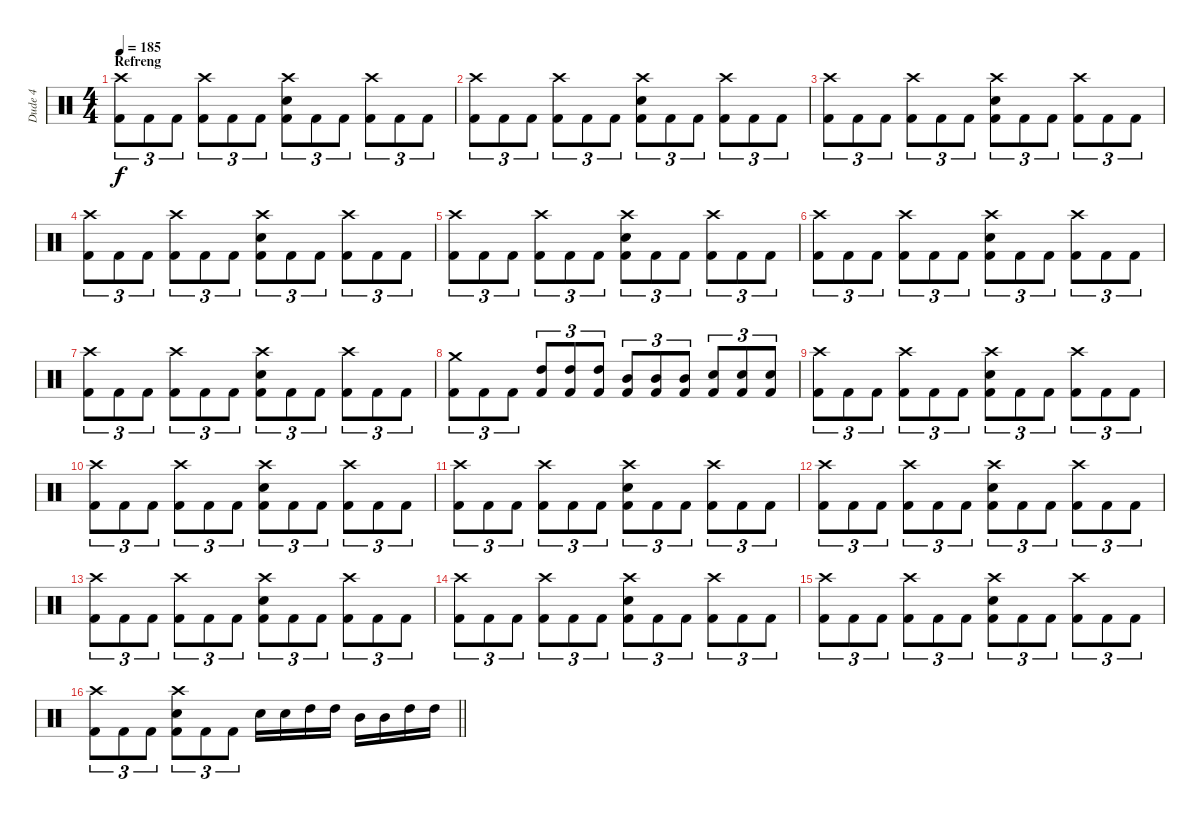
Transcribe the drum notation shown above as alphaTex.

\track ("Dude 4" "Dude 4") {instrument percussion}
\staff {score}
\articulation defaults
\ts (4 4)
\section ("" "Refreng")
\tempo 185
\clef neutral
\ks c
("Crash high (hit)" "Kick (hit) 2").8{tu (3 2) dy f} "Kick (hit) 2".8{tu (3 2)} "Kick (hit) 2".8{tu (3 2)} ("Crash high (hit)" "Kick (hit) 2").8{tu (3 2)} "Kick (hit) 2".8{tu (3 2)} "Kick (hit) 2".8{tu (3 2)} ("Crash high (hit)" "Electric Snare (hit)" "Kick (hit) 2").8{tu (3 2)} "Kick (hit) 2".8{tu (3 2)} "Kick (hit) 2".8{tu (3 2)} ("Crash high (hit)" "Kick (hit) 2").8{tu (3 2)} "Kick (hit) 2".8{tu (3 2)} "Kick (hit) 2".8{tu (3 2)} |
("Crash high (hit)" "Kick (hit) 2").8{tu (3 2)} "Kick (hit) 2".8{tu (3 2)} "Kick (hit) 2".8{tu (3 2)} ("Crash high (hit)" "Kick (hit) 2").8{tu (3 2)} "Kick (hit) 2".8{tu (3 2)} "Kick (hit) 2".8{tu (3 2)} ("Crash high (hit)" "Electric Snare (hit)" "Kick (hit) 2").8{tu (3 2)} "Kick (hit) 2".8{tu (3 2)} "Kick (hit) 2".8{tu (3 2)} ("Crash high (hit)" "Kick (hit) 2").8{tu (3 2)} "Kick (hit) 2".8{tu (3 2)} "Kick (hit) 2".8{tu (3 2)} |
("Crash high (hit)" "Kick (hit) 2").8{tu (3 2)} "Kick (hit) 2".8{tu (3 2)} "Kick (hit) 2".8{tu (3 2)} ("Crash high (hit)" "Kick (hit) 2").8{tu (3 2)} "Kick (hit) 2".8{tu (3 2)} "Kick (hit) 2".8{tu (3 2)} ("Crash high (hit)" "Electric Snare (hit)" "Kick (hit) 2").8{tu (3 2)} "Kick (hit) 2".8{tu (3 2)} "Kick (hit) 2".8{tu (3 2)} ("Crash high (hit)" "Kick (hit) 2").8{tu (3 2)} "Kick (hit) 2".8{tu (3 2)} "Kick (hit) 2".8{tu (3 2)} |
("Crash high (hit)" "Kick (hit) 2").8{tu (3 2)} "Kick (hit) 2".8{tu (3 2)} "Kick (hit) 2".8{tu (3 2)} ("Crash high (hit)" "Kick (hit) 2").8{tu (3 2)} "Kick (hit) 2".8{tu (3 2)} "Kick (hit) 2".8{tu (3 2)} ("Crash high (hit)" "Electric Snare (hit)" "Kick (hit) 2").8{tu (3 2)} "Kick (hit) 2".8{tu (3 2)} "Kick (hit) 2".8{tu (3 2)} ("Crash high (hit)" "Kick (hit) 2").8{tu (3 2)} "Kick (hit) 2".8{tu (3 2)} "Kick (hit) 2".8{tu (3 2)} |
("Crash high (hit)" "Kick (hit) 2").8{tu (3 2)} "Kick (hit) 2".8{tu (3 2)} "Kick (hit) 2".8{tu (3 2)} ("Crash high (hit)" "Kick (hit) 2").8{tu (3 2)} "Kick (hit) 2".8{tu (3 2)} "Kick (hit) 2".8{tu (3 2)} ("Crash high (hit)" "Electric Snare (hit)" "Kick (hit) 2").8{tu (3 2)} "Kick (hit) 2".8{tu (3 2)} "Kick (hit) 2".8{tu (3 2)} ("Crash high (hit)" "Kick (hit) 2").8{tu (3 2)} "Kick (hit) 2".8{tu (3 2)} "Kick (hit) 2".8{tu (3 2)} |
("Crash high (hit)" "Kick (hit) 2").8{tu (3 2)} "Kick (hit) 2".8{tu (3 2)} "Kick (hit) 2".8{tu (3 2)} ("Crash high (hit)" "Kick (hit) 2").8{tu (3 2)} "Kick (hit) 2".8{tu (3 2)} "Kick (hit) 2".8{tu (3 2)} ("Crash high (hit)" "Electric Snare (hit)" "Kick (hit) 2").8{tu (3 2)} "Kick (hit) 2".8{tu (3 2)} "Kick (hit) 2".8{tu (3 2)} ("Crash high (hit)" "Kick (hit) 2").8{tu (3 2)} "Kick (hit) 2".8{tu (3 2)} "Kick (hit) 2".8{tu (3 2)} |
("Crash high (hit)" "Kick (hit) 2").8{tu (3 2)} "Kick (hit) 2".8{tu (3 2)} "Kick (hit) 2".8{tu (3 2)} ("Crash high (hit)" "Kick (hit) 2").8{tu (3 2)} "Kick (hit) 2".8{tu (3 2)} "Kick (hit) 2".8{tu (3 2)} ("Crash high (hit)" "Electric Snare (hit)" "Kick (hit) 2").8{tu (3 2)} "Kick (hit) 2".8{tu (3 2)} "Kick (hit) 2".8{tu (3 2)} ("Crash high (hit)" "Kick (hit) 2").8{tu (3 2)} "Kick (hit) 2".8{tu (3 2)} "Kick (hit) 2".8{tu (3 2)} |
("Crash medium (hit)" "Kick (hit) 2").8{tu (3 2)} "Kick (hit) 2".8{tu (3 2)} "Kick (hit) 2".8{tu (3 2)} ("High Tom (hit)" "Kick (hit) 2").8{tu (3 2)} ("High Tom (hit)" "Kick (hit) 2").8{tu (3 2)} ("High Tom (hit)" "Kick (hit) 2").8{tu (3 2)} ("Mid Tom (hit)" "Kick (hit) 2").8{tu (3 2)} ("Mid Tom (hit)" "Kick (hit) 2").8{tu (3 2)} ("Mid Tom (hit)" "Kick (hit) 2").8{tu (3 2)} ("Electric Snare (hit)" "Kick (hit) 2").8{tu (3 2)} ("Electric Snare (hit)" "Kick (hit) 2").8{tu (3 2)} ("Electric Snare (hit)" "Kick (hit) 2").8{tu (3 2)} |
("Crash high (hit)" "Kick (hit) 2").8{tu (3 2)} "Kick (hit) 2".8{tu (3 2)} "Kick (hit) 2".8{tu (3 2)} ("Crash high (hit)" "Kick (hit) 2").8{tu (3 2)} "Kick (hit) 2".8{tu (3 2)} "Kick (hit) 2".8{tu (3 2)} ("Crash high (hit)" "Electric Snare (hit)" "Kick (hit) 2").8{tu (3 2)} "Kick (hit) 2".8{tu (3 2)} "Kick (hit) 2".8{tu (3 2)} ("Crash high (hit)" "Kick (hit) 2").8{tu (3 2)} "Kick (hit) 2".8{tu (3 2)} "Kick (hit) 2".8{tu (3 2)} |
("Crash high (hit)" "Kick (hit) 2").8{tu (3 2)} "Kick (hit) 2".8{tu (3 2)} "Kick (hit) 2".8{tu (3 2)} ("Crash high (hit)" "Kick (hit) 2").8{tu (3 2)} "Kick (hit) 2".8{tu (3 2)} "Kick (hit) 2".8{tu (3 2)} ("Crash high (hit)" "Electric Snare (hit)" "Kick (hit) 2").8{tu (3 2)} "Kick (hit) 2".8{tu (3 2)} "Kick (hit) 2".8{tu (3 2)} ("Crash high (hit)" "Kick (hit) 2").8{tu (3 2)} "Kick (hit) 2".8{tu (3 2)} "Kick (hit) 2".8{tu (3 2)} |
("Crash high (hit)" "Kick (hit) 2").8{tu (3 2)} "Kick (hit) 2".8{tu (3 2)} "Kick (hit) 2".8{tu (3 2)} ("Crash high (hit)" "Kick (hit) 2").8{tu (3 2)} "Kick (hit) 2".8{tu (3 2)} "Kick (hit) 2".8{tu (3 2)} ("Crash high (hit)" "Electric Snare (hit)" "Kick (hit) 2").8{tu (3 2)} "Kick (hit) 2".8{tu (3 2)} "Kick (hit) 2".8{tu (3 2)} ("Crash high (hit)" "Kick (hit) 2").8{tu (3 2)} "Kick (hit) 2".8{tu (3 2)} "Kick (hit) 2".8{tu (3 2)} |
("Crash high (hit)" "Kick (hit) 2").8{tu (3 2)} "Kick (hit) 2".8{tu (3 2)} "Kick (hit) 2".8{tu (3 2)} ("Crash high (hit)" "Kick (hit) 2").8{tu (3 2)} "Kick (hit) 2".8{tu (3 2)} "Kick (hit) 2".8{tu (3 2)} ("Crash high (hit)" "Electric Snare (hit)" "Kick (hit) 2").8{tu (3 2)} "Kick (hit) 2".8{tu (3 2)} "Kick (hit) 2".8{tu (3 2)} ("Crash high (hit)" "Kick (hit) 2").8{tu (3 2)} "Kick (hit) 2".8{tu (3 2)} "Kick (hit) 2".8{tu (3 2)} |
("Crash high (hit)" "Kick (hit) 2").8{tu (3 2)} "Kick (hit) 2".8{tu (3 2)} "Kick (hit) 2".8{tu (3 2)} ("Crash high (hit)" "Kick (hit) 2").8{tu (3 2)} "Kick (hit) 2".8{tu (3 2)} "Kick (hit) 2".8{tu (3 2)} ("Crash high (hit)" "Electric Snare (hit)" "Kick (hit) 2").8{tu (3 2)} "Kick (hit) 2".8{tu (3 2)} "Kick (hit) 2".8{tu (3 2)} ("Crash high (hit)" "Kick (hit) 2").8{tu (3 2)} "Kick (hit) 2".8{tu (3 2)} "Kick (hit) 2".8{tu (3 2)} |
("Crash high (hit)" "Kick (hit) 2").8{tu (3 2)} "Kick (hit) 2".8{tu (3 2)} "Kick (hit) 2".8{tu (3 2)} ("Crash high (hit)" "Kick (hit) 2").8{tu (3 2)} "Kick (hit) 2".8{tu (3 2)} "Kick (hit) 2".8{tu (3 2)} ("Crash high (hit)" "Electric Snare (hit)" "Kick (hit) 2").8{tu (3 2)} "Kick (hit) 2".8{tu (3 2)} "Kick (hit) 2".8{tu (3 2)} ("Crash high (hit)" "Kick (hit) 2").8{tu (3 2)} "Kick (hit) 2".8{tu (3 2)} "Kick (hit) 2".8{tu (3 2)} |
("Crash high (hit)" "Kick (hit) 2").8{tu (3 2)} "Kick (hit) 2".8{tu (3 2)} "Kick (hit) 2".8{tu (3 2)} ("Crash high (hit)" "Kick (hit) 2").8{tu (3 2)} "Kick (hit) 2".8{tu (3 2)} "Kick (hit) 2".8{tu (3 2)} ("Crash high (hit)" "Electric Snare (hit)" "Kick (hit) 2").8{tu (3 2)} "Kick (hit) 2".8{tu (3 2)} "Kick (hit) 2".8{tu (3 2)} ("Crash high (hit)" "Kick (hit) 2").8{tu (3 2)} "Kick (hit) 2".8{tu (3 2)} "Kick (hit) 2".8{tu (3 2)} |
\barLineRight lightlight
("Crash high (hit)" "Kick (hit) 2").8{tu (3 2)} "Kick (hit) 2".8{tu (3 2)} "Kick (hit) 2".8{tu (3 2)} ("Crash high (hit)" "Electric Snare (hit)" "Kick (hit) 2").8{tu (3 2)} "Kick (hit) 2".8{tu (3 2)} "Kick (hit) 2".8{tu (3 2)} "Electric Snare (hit)".16 "Electric Snare (hit)".16 "High Tom (hit)".16 "High Tom (hit)".16 "Mid Tom (hit)".16 "Mid Tom (hit)".16 "High Tom (hit)".16 "High Tom (hit)".16
